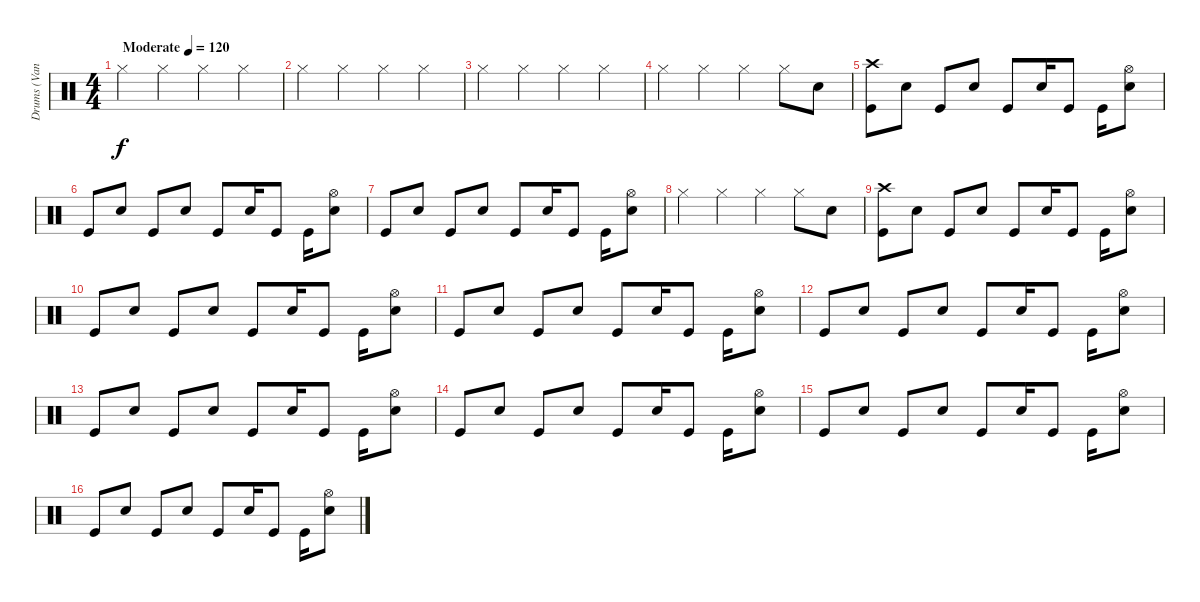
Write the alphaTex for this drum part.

\track ("Drums (Vandel)" "Drums (Van") {instrument percussion}
\staff {score}
\articulation defaults
\ts (4 4)
\tempo (120 "Moderate")
\clef neutral
\ks c "Hi-Hat (closed)".4{dy f} "Hi-Hat (closed)".4 "Hi-Hat (closed)".4 "Hi-Hat (closed)".4
|
"Hi-Hat (closed)".4 "Hi-Hat (closed)".4 "Hi-Hat (closed)".4 "Hi-Hat (closed)".4 |
"Hi-Hat (closed)".4 "Hi-Hat (closed)".4 "Hi-Hat (closed)".4 "Hi-Hat (closed)".4 |
"Hi-Hat (closed)".4 "Hi-Hat (closed)".4 "Hi-Hat (closed)".4 "Hi-Hat (closed)".8 "Snare (hit) 2".8 |
("Crash high (hit)" "Kick (hit)").8 "Snare (hit) 2".8 "Kick (hit)".8 "Snare (hit) 2".8 "Kick (hit)".8 "Snare (hit) 2".16 "Kick (hit)".8 "Kick (hit)".16 ("Hi-Hat (open)" "Snare (hit) 2").8 |
"Kick (hit)".8 "Snare (hit) 2".8 "Kick (hit)".8 "Snare (hit) 2".8 "Kick (hit)".8 "Snare (hit) 2".16 "Kick (hit)".8 "Kick (hit)".16 ("Hi-Hat (open)" "Snare (hit) 2").8 |
"Kick (hit)".8 "Snare (hit) 2".8 "Kick (hit)".8 "Snare (hit) 2".8 "Kick (hit)".8 "Snare (hit) 2".16 "Kick (hit)".8 "Kick (hit)".16 ("Hi-Hat (open)" "Snare (hit) 2").8 |
"Hi-Hat (closed)".4 "Hi-Hat (closed)".4 "Hi-Hat (closed)".4 "Hi-Hat (closed)".8 "Snare (hit) 2".8 |
("Crash high (hit)" "Kick (hit)").8 "Snare (hit) 2".8 "Kick (hit)".8 "Snare (hit) 2".8 "Kick (hit)".8 "Snare (hit) 2".16 "Kick (hit)".8 "Kick (hit)".16 ("Hi-Hat (open)" "Snare (hit) 2").8 |
"Kick (hit)".8 "Snare (hit) 2".8 "Kick (hit)".8 "Snare (hit) 2".8 "Kick (hit)".8 "Snare (hit) 2".16 "Kick (hit)".8 "Kick (hit)".16 ("Hi-Hat (open)" "Snare (hit) 2").8 |
"Kick (hit)".8 "Snare (hit) 2".8 "Kick (hit)".8 "Snare (hit) 2".8 "Kick (hit)".8 "Snare (hit) 2".16 "Kick (hit)".8 "Kick (hit)".16 ("Hi-Hat (open)" "Snare (hit) 2").8 |
"Kick (hit)".8 "Snare (hit) 2".8 "Kick (hit)".8 "Snare (hit) 2".8 "Kick (hit)".8 "Snare (hit) 2".16 "Kick (hit)".8 "Kick (hit)".16 ("Hi-Hat (open)" "Snare (hit) 2").8 |
"Kick (hit)".8 "Snare (hit) 2".8 "Kick (hit)".8 "Snare (hit) 2".8 "Kick (hit)".8 "Snare (hit) 2".16 "Kick (hit)".8 "Kick (hit)".16 ("Hi-Hat (open)" "Snare (hit) 2").8 |
"Kick (hit)".8 "Snare (hit) 2".8 "Kick (hit)".8 "Snare (hit) 2".8 "Kick (hit)".8 "Snare (hit) 2".16 "Kick (hit)".8 "Kick (hit)".16 ("Hi-Hat (open)" "Snare (hit) 2").8 |
"Kick (hit)".8 "Snare (hit) 2".8 "Kick (hit)".8 "Snare (hit) 2".8 "Kick (hit)".8 "Snare (hit) 2".16 "Kick (hit)".8 "Kick (hit)".16 ("Hi-Hat (open)" "Snare (hit) 2").8 |
"Kick (hit)".8 "Snare (hit) 2".8 "Kick (hit)".8 "Snare (hit) 2".8 "Kick (hit)".8 "Snare (hit) 2".16 "Kick (hit)".8 "Kick (hit)".16 ("Hi-Hat (open)" "Snare (hit) 2").8
